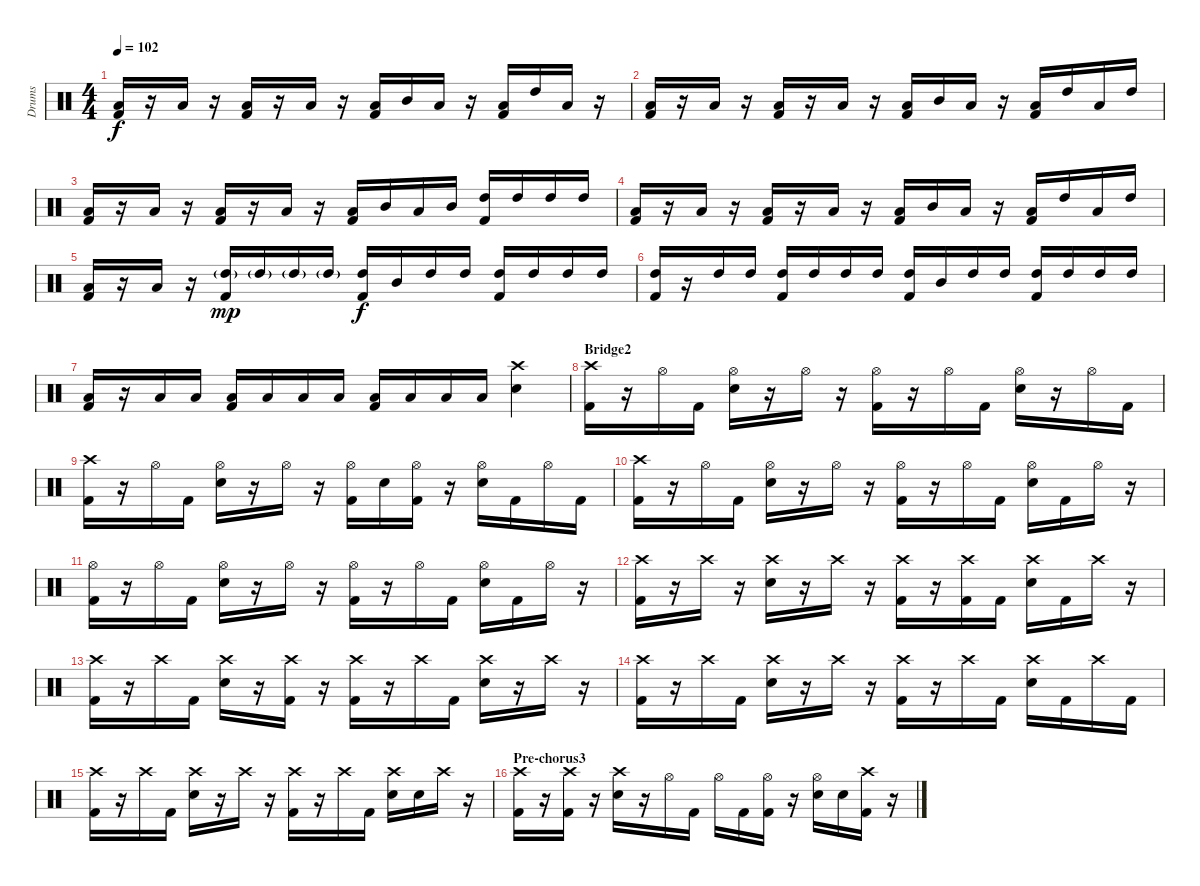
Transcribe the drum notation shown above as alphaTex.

\track ("Drums" "Drums") {instrument percussion}
\staff {score}
\articulation defaults
\ts (4 4)
\tempo 102
\clef neutral
\ks c
("Low Floor Tom (hit)" "Kick (hit) 2").16{dy f} r.16 "Low Floor Tom (hit)".16 r.16 ("Low Floor Tom (hit)" "Kick (hit) 2").16 r.16 "Low Floor Tom (hit)".16 r.16 ("Low Floor Tom (hit)" "Kick (hit) 2").16 "Mid Tom (hit)".16 "Low Floor Tom (hit)".16 r.16 ("Low Floor Tom (hit)" "Kick (hit) 2").16 "High Tom (hit)".16 "Low Floor Tom (hit)".16 r.16 |
("Low Floor Tom (hit)" "Kick (hit) 2").16 r.16 "Low Floor Tom (hit)".16 r.16 ("Low Floor Tom (hit)" "Kick (hit) 2").16 r.16 "Low Floor Tom (hit)".16 r.16 ("Low Floor Tom (hit)" "Kick (hit) 2").16 "Mid Tom (hit)".16 "Low Floor Tom (hit)".16 r.16 ("Low Floor Tom (hit)" "Kick (hit) 2").16 "High Tom (hit)".16 "Low Floor Tom (hit)".16 "High Tom (hit)".16 |
("Low Floor Tom (hit)" "Kick (hit) 2").16 r.16 "Low Floor Tom (hit)".16 r.16 ("Low Floor Tom (hit)" "Kick (hit) 2").16 r.16 "Low Floor Tom (hit)".16 r.16 ("Low Floor Tom (hit)" "Kick (hit) 2").16 "Mid Tom (hit)".16 "Low Floor Tom (hit)".16 "Mid Tom (hit)".16 ("High Tom (hit)" "Kick (hit) 2").16 "High Tom (hit)".16 "High Tom (hit)".16 "High Tom (hit)".16 |
("Low Floor Tom (hit)" "Kick (hit) 2").16 r.16 "Low Floor Tom (hit)".16 r.16 ("Low Floor Tom (hit)" "Kick (hit) 2").16 r.16 "Low Floor Tom (hit)".16 r.16 ("Low Floor Tom (hit)" "Kick (hit) 2").16 "Mid Tom (hit)".16 "Low Floor Tom (hit)".16 r.16 ("Low Floor Tom (hit)" "Kick (hit) 2").16 "High Tom (hit)".16 "Low Floor Tom (hit)".16 "High Tom (hit)".16 |
("Low Floor Tom (hit)" "Kick (hit) 2").16 r.16 "Low Floor Tom (hit)".16 r.16 ("High Tom (hit)"{g} "Kick (hit) 2").16{dy mp} "High Tom (hit)"{g}.16 "High Tom (hit)"{g}.16 "High Tom (hit)"{g}.16 ("High Tom (hit)" "Kick (hit) 2").16{dy f} "Mid Tom (hit)".16 "High Tom (hit)".16 "High Tom (hit)".16 ("High Tom (hit)" "Kick (hit) 2").16 "High Tom (hit)".16 "High Tom (hit)".16 "High Tom (hit)".16 |
("High Tom (hit)" "Kick (hit) 2").16 r.16 "High Tom (hit)".16 "High Tom (hit)".16 ("High Tom (hit)" "Kick (hit) 2").16 "High Tom (hit)".16 "High Tom (hit)".16 "High Tom (hit)".16 ("High Tom (hit)" "Kick (hit) 2").16 "Mid Tom (hit)".16 "High Tom (hit)".16 "High Tom (hit)".16 ("High Tom (hit)" "Kick (hit) 2").16 "High Tom (hit)".16 "High Tom (hit)".16 "High Tom (hit)".16 |
("Low Floor Tom (hit)" "Kick (hit) 2").16 r.16 "Low Floor Tom (hit)".16 "Low Floor Tom (hit)".16 ("Low Floor Tom (hit)" "Kick (hit) 2").16 "Low Floor Tom (hit)".16 "Low Floor Tom (hit)".16 "Low Floor Tom (hit)".16 ("Low Floor Tom (hit)" "Kick (hit) 2").16 "Low Floor Tom (hit)".16 "Low Floor Tom (hit)".16 "Low Floor Tom (hit)".16 ("Crash high (hit)" "Snare (hit) 2").4 |
\section ("" "Bridge2")
("Crash high (hit)" "Kick (hit) 2").16 r.16 "Hi-Hat (open)".16 "Kick (hit) 2".16 ("Hi-Hat (open)" "Snare (hit) 2").16 r.16 "Hi-Hat (open)".16 r.16 ("Hi-Hat (open)" "Kick (hit) 2").16 r.16 "Hi-Hat (open)".16 "Kick (hit) 2".16 ("Hi-Hat (open)" "Snare (hit) 2").16 r.16 "Hi-Hat (open)".16 "Kick (hit) 2".16 |
("Crash high (hit)" "Kick (hit) 2").16 r.16 "Hi-Hat (open)".16 "Kick (hit) 2".16 ("Hi-Hat (open)" "Snare (hit) 2").16 r.16 "Hi-Hat (open)".16 r.16 ("Hi-Hat (open)" "Kick (hit) 2").16 "Snare (hit) 2".16 ("Hi-Hat (open)" "Kick (hit) 2").16 r.16 ("Hi-Hat (open)" "Snare (hit) 2").16 "Kick (hit) 2".16 "Hi-Hat (open)".16 "Kick (hit) 2".16 |
("Crash high (hit)" "Kick (hit) 2").16 r.16 "Hi-Hat (open)".16 "Kick (hit) 2".16 ("Hi-Hat (open)" "Snare (hit) 2").16 r.16 "Hi-Hat (open)".16 r.16 ("Hi-Hat (open)" "Kick (hit) 2").16 r.16 "Hi-Hat (open)".16 "Kick (hit) 2".16 ("Hi-Hat (open)" "Snare (hit) 2").16 "Kick (hit) 2".16 "Hi-Hat (open)".16 r.16 |
("Hi-Hat (open)" "Kick (hit) 2").16 r.16 "Hi-Hat (open)".16 "Kick (hit) 2".16 ("Hi-Hat (open)" "Snare (hit) 2").16 r.16 "Hi-Hat (open)".16 r.16 ("Hi-Hat (open)" "Kick (hit) 2").16 r.16 "Hi-Hat (open)".16 "Kick (hit) 2".16 ("Hi-Hat (open)" "Snare (hit) 2").16 "Kick (hit) 2".16 "Hi-Hat (open)".16 r.16 |
("Crash high (hit)" "Kick (hit) 2").16 r.16 "Crash high (hit)".16 r.16 ("Crash high (hit)" "Snare (hit) 2").16 r.16 "Crash high (hit)".16 r.16 ("Crash high (hit)" "Kick (hit) 2").16 r.16 ("Crash high (hit)" "Kick (hit) 2").16 "Kick (hit) 2".16 ("Crash high (hit)" "Snare (hit) 2").16 "Kick (hit) 2".16 "Crash high (hit)".16 r.16 |
("Crash high (hit)" "Kick (hit) 2").16 r.16 "Crash high (hit)".16 "Kick (hit) 2".16 ("Crash high (hit)" "Snare (hit) 2").16 r.16 ("Crash high (hit)" "Kick (hit) 2").16 r.16 ("Crash high (hit)" "Kick (hit) 2").16 r.16 "Crash high (hit)".16 "Kick (hit) 2".16 ("Crash high (hit)" "Snare (hit) 2").16 r.16 "Crash high (hit)".16 r.16 |
("Crash high (hit)" "Kick (hit) 2").16 r.16 "Crash high (hit)".16 "Kick (hit) 2".16 ("Crash high (hit)" "Snare (hit) 2").16 r.16 "Crash high (hit)".16 r.16 ("Crash high (hit)" "Kick (hit) 2").16 r.16 "Crash high (hit)".16 "Kick (hit) 2".16 ("Crash high (hit)" "Snare (hit) 2").16 "Kick (hit) 2".16 "Crash high (hit)".16 "Kick (hit) 2".16 |
("Crash high (hit)" "Kick (hit) 2").16 r.16 "Crash high (hit)".16 "Kick (hit) 2".16 ("Crash high (hit)" "Snare (hit) 2").16 r.16 "Crash high (hit)".16 r.16 ("Crash high (hit)" "Kick (hit) 2").16 r.16 "Crash high (hit)".16 "Kick (hit) 2".16 ("Crash high (hit)" "Snare (hit) 2").16 "Snare (hit) 2".16 "Crash high (hit)".16 r.16 |
\section ("" "Pre-chorus3")
("Crash high (hit)" "Kick (hit) 2").16 r.16 ("Crash high (hit)" "Kick (hit) 2").16 r.16 ("Crash high (hit)" "Snare (hit) 2").16 r.16 "Hi-Hat (open)".16 "Kick (hit) 2".16 "Hi-Hat (open)".16 "Kick (hit) 2".16 ("Hi-Hat (open)" "Kick (hit) 2").16 r.16 ("Hi-Hat (open)" "Snare (hit) 2").16 "Snare (hit) 2".16 ("Crash high (hit)" "Kick (hit) 2").16 r.16
